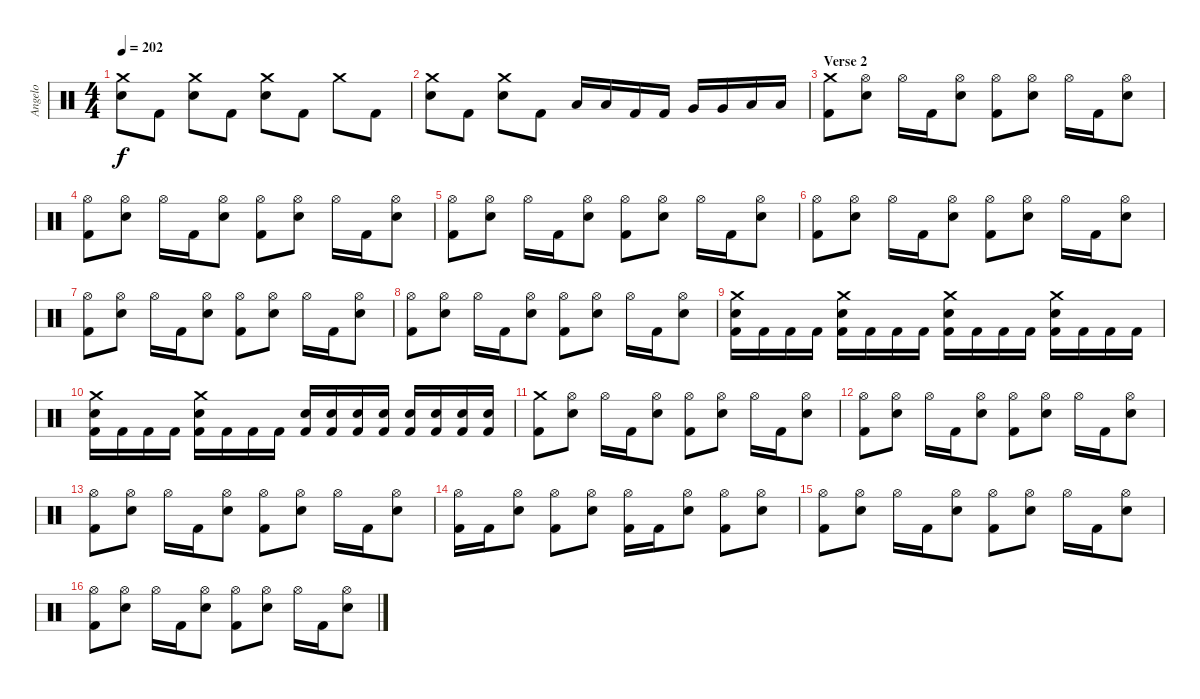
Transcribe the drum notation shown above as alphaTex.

\track ("Angelo" "Angelo") {instrument percussion}
\staff {score}
\articulation defaults
\ts (4 4)
\tempo 202
\clef neutral
\ks c
("Crash medium (hit)" "Electric Snare (hit)").8{dy f} "Kick (hit) 2".8 ("Crash medium (hit)" "Electric Snare (hit)").8 "Kick (hit) 2".8 ("Crash medium (hit)" "Electric Snare (hit)").8 "Kick (hit) 2".8 "Crash medium (hit)".8 "Kick (hit) 2".8 |
("Crash medium (hit)" "Electric Snare (hit)").8 "Kick (hit) 2".8 ("Crash medium (hit)" "Electric Snare (hit)").8 "Kick (hit) 2".8 "Low Tom (hit)".16 "Low Tom (hit)".16 "Kick (hit) 2".16 "Kick (hit) 2".16 "Very Low Tom (hit)".16 "Very Low Tom (hit)".16 "Low Floor Tom (hit)".16 "Low Floor Tom (hit)".16 |
\section ("" "Verse 2")
("Crash medium (hit)" "Kick (hit) 2").8 ("Hi-Hat (open)" "Electric Snare (hit)").8 "Hi-Hat (open)".16 "Kick (hit) 2".16 ("Hi-Hat (open)" "Electric Snare (hit)").8 ("Hi-Hat (open)" "Kick (hit) 2").8 ("Hi-Hat (open)" "Electric Snare (hit)").8 "Hi-Hat (open)".16 "Kick (hit) 2".16 ("Hi-Hat (open)" "Electric Snare (hit)").8 |
("Hi-Hat (open)" "Kick (hit) 2").8 ("Hi-Hat (open)" "Electric Snare (hit)").8 "Hi-Hat (open)".16 "Kick (hit) 2".16 ("Hi-Hat (open)" "Electric Snare (hit)").8 ("Hi-Hat (open)" "Kick (hit) 2").8 ("Hi-Hat (open)" "Electric Snare (hit)").8 "Hi-Hat (open)".16 "Kick (hit) 2".16 ("Hi-Hat (open)" "Electric Snare (hit)").8 |
("Hi-Hat (open)" "Kick (hit) 2").8 ("Hi-Hat (open)" "Electric Snare (hit)").8 "Hi-Hat (open)".16 "Kick (hit) 2".16 ("Hi-Hat (open)" "Electric Snare (hit)").8 ("Hi-Hat (open)" "Kick (hit) 2").8 ("Hi-Hat (open)" "Electric Snare (hit)").8 "Hi-Hat (open)".16 "Kick (hit) 2".16 ("Hi-Hat (open)" "Electric Snare (hit)").8 |
("Hi-Hat (open)" "Kick (hit) 2").8 ("Hi-Hat (open)" "Electric Snare (hit)").8 "Hi-Hat (open)".16 "Kick (hit) 2".16 ("Hi-Hat (open)" "Electric Snare (hit)").8 ("Hi-Hat (open)" "Kick (hit) 2").8 ("Hi-Hat (open)" "Electric Snare (hit)").8 "Hi-Hat (open)".16 "Kick (hit) 2".16 ("Hi-Hat (open)" "Electric Snare (hit)").8 |
("Hi-Hat (open)" "Kick (hit) 2").8 ("Hi-Hat (open)" "Electric Snare (hit)").8 "Hi-Hat (open)".16 "Kick (hit) 2".16 ("Hi-Hat (open)" "Electric Snare (hit)").8 ("Hi-Hat (open)" "Kick (hit) 2").8 ("Hi-Hat (open)" "Electric Snare (hit)").8 "Hi-Hat (open)".16 "Kick (hit) 2".16 ("Hi-Hat (open)" "Electric Snare (hit)").8 |
("Hi-Hat (open)" "Kick (hit) 2").8 ("Hi-Hat (open)" "Electric Snare (hit)").8 "Hi-Hat (open)".16 "Kick (hit) 2".16 ("Hi-Hat (open)" "Electric Snare (hit)").8 ("Hi-Hat (open)" "Kick (hit) 2").8 ("Hi-Hat (open)" "Electric Snare (hit)").8 "Hi-Hat (open)".16 "Kick (hit) 2".16 ("Hi-Hat (open)" "Electric Snare (hit)").8 |
("Crash medium (hit)" "Electric Snare (hit)" "Kick (hit) 2").16 "Kick (hit) 2".16 "Kick (hit) 2".16 "Kick (hit) 2".16 ("Crash medium (hit)" "Electric Snare (hit)" "Kick (hit) 2").16 "Kick (hit) 2".16 "Kick (hit) 2".16 "Kick (hit) 2".16 ("Crash medium (hit)" "Electric Snare (hit)" "Kick (hit) 2").16 "Kick (hit) 2".16 "Kick (hit) 2".16 "Kick (hit) 2".16 ("Crash medium (hit)" "Electric Snare (hit)" "Kick (hit) 2").16 "Kick (hit) 2".16 "Kick (hit) 2".16 "Kick (hit) 2".16 |
("Crash medium (hit)" "Electric Snare (hit)" "Kick (hit) 2").16 "Kick (hit) 2".16 "Kick (hit) 2".16 "Kick (hit) 2".16 ("Crash medium (hit)" "Electric Snare (hit)" "Kick (hit) 2").16 "Kick (hit) 2".16 "Kick (hit) 2".16 "Kick (hit) 2".16 ("Electric Snare (hit)" "Kick (hit) 2").16 ("Electric Snare (hit)" "Kick (hit) 2").16 ("Electric Snare (hit)" "Kick (hit) 2").16 ("Electric Snare (hit)" "Kick (hit) 2").16 ("Electric Snare (hit)" "Kick (hit) 2").16 ("Electric Snare (hit)" "Kick (hit) 2").16 ("Electric Snare (hit)" "Kick (hit) 2").16 ("Electric Snare (hit)" "Kick (hit) 2").16 |
("Crash medium (hit)" "Kick (hit) 2").8 ("Hi-Hat (open)" "Electric Snare (hit)").8 "Hi-Hat (open)".16 "Kick (hit) 2".16 ("Hi-Hat (open)" "Electric Snare (hit)").8 ("Hi-Hat (open)" "Kick (hit) 2").8 ("Hi-Hat (open)" "Electric Snare (hit)").8 "Hi-Hat (open)".16 "Kick (hit) 2".16 ("Hi-Hat (open)" "Electric Snare (hit)").8 |
("Hi-Hat (open)" "Kick (hit) 2").8 ("Hi-Hat (open)" "Electric Snare (hit)").8 "Hi-Hat (open)".16 "Kick (hit) 2".16 ("Hi-Hat (open)" "Electric Snare (hit)").8 ("Hi-Hat (open)" "Kick (hit) 2").8 ("Hi-Hat (open)" "Electric Snare (hit)").8 "Hi-Hat (open)".16 "Kick (hit) 2".16 ("Hi-Hat (open)" "Electric Snare (hit)").8 |
("Hi-Hat (open)" "Kick (hit) 2").8 ("Hi-Hat (open)" "Electric Snare (hit)").8 "Hi-Hat (open)".16 "Kick (hit) 2".16 ("Hi-Hat (open)" "Electric Snare (hit)").8 ("Hi-Hat (open)" "Kick (hit) 2").8 ("Hi-Hat (open)" "Electric Snare (hit)").8 "Hi-Hat (open)".16 "Kick (hit) 2".16 ("Hi-Hat (open)" "Electric Snare (hit)").8 |
("Hi-Hat (open)" "Kick (hit) 2").16 "Kick (hit) 2".16 ("Hi-Hat (open)" "Electric Snare (hit)").8 ("Hi-Hat (open)" "Kick (hit) 2").8 ("Hi-Hat (open)" "Electric Snare (hit)").8 ("Hi-Hat (open)" "Kick (hit) 2").16 "Kick (hit) 2".16 ("Hi-Hat (open)" "Electric Snare (hit)").8 ("Hi-Hat (open)" "Kick (hit) 2").8 ("Hi-Hat (open)" "Electric Snare (hit)").8 |
("Hi-Hat (open)" "Kick (hit) 2").8 ("Hi-Hat (open)" "Electric Snare (hit)").8 "Hi-Hat (open)".16 "Kick (hit) 2".16 ("Hi-Hat (open)" "Electric Snare (hit)").8 ("Hi-Hat (open)" "Kick (hit) 2").8 ("Hi-Hat (open)" "Electric Snare (hit)").8 "Hi-Hat (open)".16 "Kick (hit) 2".16 ("Hi-Hat (open)" "Electric Snare (hit)").8 |
("Hi-Hat (open)" "Kick (hit) 2").8 ("Hi-Hat (open)" "Electric Snare (hit)").8 "Hi-Hat (open)".16 "Kick (hit) 2".16 ("Hi-Hat (open)" "Electric Snare (hit)").8 ("Hi-Hat (open)" "Kick (hit) 2").8 ("Hi-Hat (open)" "Electric Snare (hit)").8 "Hi-Hat (open)".16 "Kick (hit) 2".16 ("Hi-Hat (open)" "Electric Snare (hit)").8
